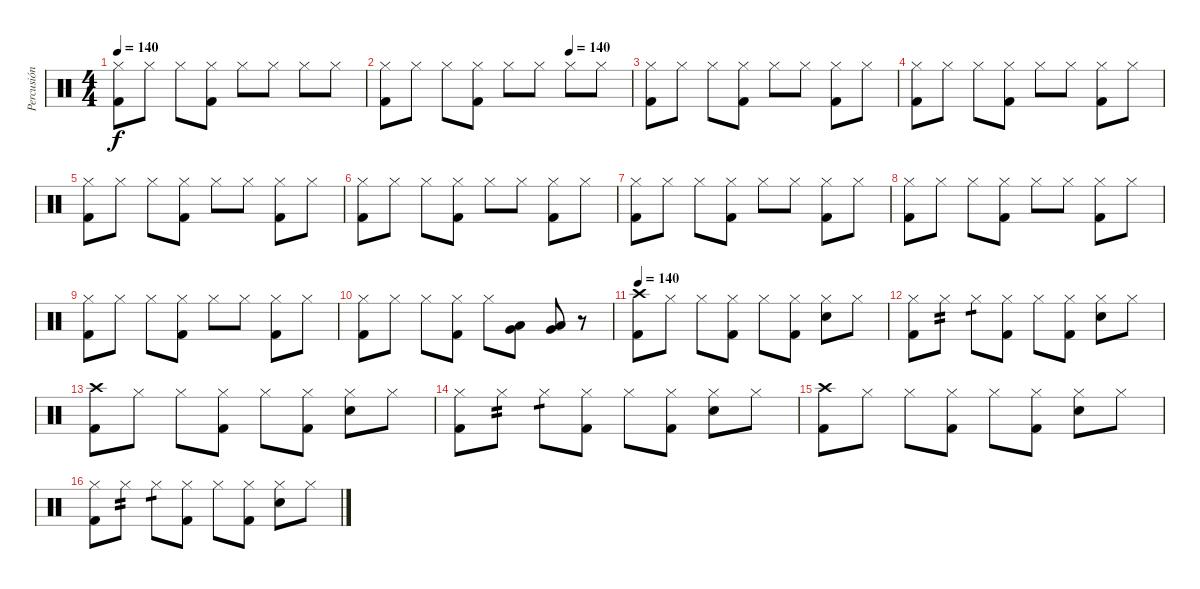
\track ("Percusión" "Percusión") {instrument percussion}
\staff {score}
\articulation defaults
\ts (4 4)
\tempo 140
\clef neutral
\ks c
("Hi-Hat (closed)" "Kick (hit) 2").8{dy f} "Hi-Hat (closed)".8 "Hi-Hat (closed)".8 ("Hi-Hat (closed)" "Kick (hit) 2").8 "Hi-Hat (closed)".8 "Hi-Hat (closed)".8 "Hi-Hat (closed)".8 "Hi-Hat (closed)".8 |
\tempo (140 0.75)
("Hi-Hat (closed)" "Kick (hit) 2").8 "Hi-Hat (closed)".8 "Hi-Hat (closed)".8 ("Hi-Hat (closed)" "Kick (hit) 2").8 "Hi-Hat (closed)".8 "Hi-Hat (closed)".8 "Hi-Hat (closed)".8 "Hi-Hat (closed)".8 |
("Hi-Hat (closed)" "Kick (hit) 2").8 "Hi-Hat (closed)".8 "Hi-Hat (closed)".8 ("Hi-Hat (closed)" "Kick (hit) 2").8 "Hi-Hat (closed)".8 "Hi-Hat (closed)".8 ("Hi-Hat (closed)" "Kick (hit) 2").8 "Hi-Hat (closed)".8 |
("Hi-Hat (closed)" "Kick (hit) 2").8 "Hi-Hat (closed)".8 "Hi-Hat (closed)".8 ("Hi-Hat (closed)" "Kick (hit) 2").8 "Hi-Hat (closed)".8 "Hi-Hat (closed)".8 ("Hi-Hat (closed)" "Kick (hit) 2").8 "Hi-Hat (closed)".8 |
("Hi-Hat (closed)" "Kick (hit) 2").8 "Hi-Hat (closed)".8 "Hi-Hat (closed)".8 ("Hi-Hat (closed)" "Kick (hit) 2").8 "Hi-Hat (closed)".8 "Hi-Hat (closed)".8 ("Hi-Hat (closed)" "Kick (hit) 2").8 "Hi-Hat (closed)".8 |
("Hi-Hat (closed)" "Kick (hit) 2").8 "Hi-Hat (closed)".8 "Hi-Hat (closed)".8 ("Hi-Hat (closed)" "Kick (hit) 2").8 "Hi-Hat (closed)".8 "Hi-Hat (closed)".8 ("Hi-Hat (closed)" "Kick (hit) 2").8 "Hi-Hat (closed)".8 |
("Hi-Hat (closed)" "Kick (hit) 2").8 "Hi-Hat (closed)".8 "Hi-Hat (closed)".8 ("Hi-Hat (closed)" "Kick (hit) 2").8 "Hi-Hat (closed)".8 "Hi-Hat (closed)".8 ("Hi-Hat (closed)" "Kick (hit) 2").8 "Hi-Hat (closed)".8 |
("Hi-Hat (closed)" "Kick (hit) 2").8 "Hi-Hat (closed)".8 "Hi-Hat (closed)".8 ("Hi-Hat (closed)" "Kick (hit) 2").8 "Hi-Hat (closed)".8 "Hi-Hat (closed)".8 ("Hi-Hat (closed)" "Kick (hit) 2").8 "Hi-Hat (closed)".8 |
("Hi-Hat (closed)" "Kick (hit) 2").8 "Hi-Hat (closed)".8 "Hi-Hat (closed)".8 ("Hi-Hat (closed)" "Kick (hit) 2").8 "Hi-Hat (closed)".8 "Hi-Hat (closed)".8 ("Hi-Hat (closed)" "Kick (hit) 2").8 "Hi-Hat (closed)".8 |
("Hi-Hat (closed)" "Kick (hit) 2").8 "Hi-Hat (closed)".8 "Hi-Hat (closed)".8 ("Hi-Hat (closed)" "Kick (hit) 2").8 "Hi-Hat (closed)".8 ("Very Low Tom (hit)" "Low Tom (hit)").8 ("Very Low Tom (hit)" "Low Tom (hit)").8 r.8 |
\tempo 140
("Crash high (hit)" "Kick (hit) 2").8 "Hi-Hat (closed)".8 "Hi-Hat (closed)".8 ("Hi-Hat (closed)" "Kick (hit) 2").8 "Hi-Hat (closed)".8 ("Hi-Hat (closed)" "Kick (hit) 2").8 ("Hi-Hat (closed)" "Electric Snare (hit)").8 "Hi-Hat (closed)".8 |
("Hi-Hat (closed)" "Kick (hit) 2").8 "Hi-Hat (closed)".8{tp 2} "Hi-Hat (closed)".8{tp 1} ("Hi-Hat (closed)" "Kick (hit) 2").8 "Hi-Hat (closed)".8 ("Hi-Hat (closed)" "Kick (hit) 2").8 ("Hi-Hat (closed)" "Electric Snare (hit)").8 "Hi-Hat (closed)".8 |
("Crash high (hit)" "Kick (hit) 2").8 "Hi-Hat (closed)".8 "Hi-Hat (closed)".8 ("Hi-Hat (closed)" "Kick (hit) 2").8 "Hi-Hat (closed)".8 ("Hi-Hat (closed)" "Kick (hit) 2").8 ("Hi-Hat (closed)" "Electric Snare (hit)").8 "Hi-Hat (closed)".8 |
("Hi-Hat (closed)" "Kick (hit) 2").8 "Hi-Hat (closed)".8{tp 2} "Hi-Hat (closed)".8{tp 1} ("Hi-Hat (closed)" "Kick (hit) 2").8 "Hi-Hat (closed)".8 ("Hi-Hat (closed)" "Kick (hit) 2").8 ("Hi-Hat (closed)" "Electric Snare (hit)").8 "Hi-Hat (closed)".8 |
("Crash high (hit)" "Kick (hit) 2").8 "Hi-Hat (closed)".8 "Hi-Hat (closed)".8 ("Hi-Hat (closed)" "Kick (hit) 2").8 "Hi-Hat (closed)".8 ("Hi-Hat (closed)" "Kick (hit) 2").8 ("Hi-Hat (closed)" "Electric Snare (hit)").8 "Hi-Hat (closed)".8 |
("Hi-Hat (closed)" "Kick (hit) 2").8 "Hi-Hat (closed)".8{tp 2} "Hi-Hat (closed)".8{tp 1} ("Hi-Hat (closed)" "Kick (hit) 2").8 "Hi-Hat (closed)".8 ("Hi-Hat (closed)" "Kick (hit) 2").8 ("Hi-Hat (closed)" "Electric Snare (hit)").8 "Hi-Hat (closed)".8
